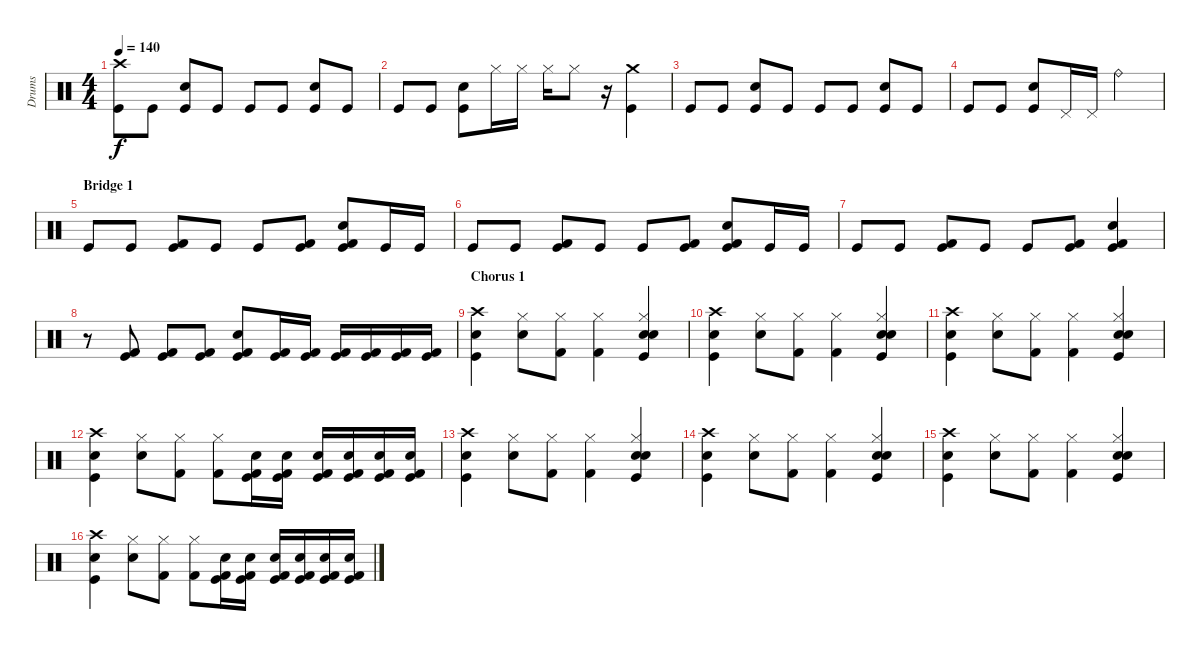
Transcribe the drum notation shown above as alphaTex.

\track ("Drums" "Drums") {instrument percussion}
\staff {score}
\articulation defaults
\ts (4 4)
\tempo 140
\clef neutral
\ks c
("Crash high (hit)" "Kick (hit)").8{dy f} "Kick (hit)".8 ("Snare (hit) 2" "Kick (hit)").8 "Kick (hit)".8 "Kick (hit)".8 "Kick (hit)".8 ("Snare (hit) 2" "Kick (hit)").8 "Kick (hit)".8 |
"Kick (hit)".8 "Kick (hit)".8 ("Snare (hit) 2" "Kick (hit)").8 "Hi-Hat (closed)".16 "Hi-Hat (closed)".16 "Hi-Hat (closed)".16 "Hi-Hat (closed)".8 r.16 ("Crash medium (hit)" "Kick (hit)").4 |
"Kick (hit)".8 "Kick (hit)".8 ("Snare (hit) 2" "Kick (hit)").8 "Kick (hit)".8 "Kick (hit)".8 "Kick (hit)".8 ("Snare (hit) 2" "Kick (hit)").8 "Kick (hit)".8 |
"Kick (hit)".8 "Kick (hit)".8 ("Snare (hit) 2" "Kick (hit)").8 "Pedal Hi-Hat (hit)".16 "Pedal Hi-Hat (hit)".16 "Ride (bell)".2 |
\section ("" "Bridge 1")
"Kick (hit)".8 "Kick (hit)".8 ("Kick (hit) 2" "Kick (hit)").8 "Kick (hit)".8 "Kick (hit)".8 ("Kick (hit) 2" "Kick (hit)").8 ("Snare (hit) 2" "Kick (hit) 2" "Kick (hit)").8 "Kick (hit)".16 "Kick (hit)".16 |
"Kick (hit)".8 "Kick (hit)".8 ("Kick (hit) 2" "Kick (hit)").8 "Kick (hit)".8 "Kick (hit)".8 ("Kick (hit) 2" "Kick (hit)").8 ("Snare (hit) 2" "Kick (hit) 2" "Kick (hit)").8 "Kick (hit)".16 "Kick (hit)".16 |
"Kick (hit)".8 "Kick (hit)".8 ("Kick (hit) 2" "Kick (hit)").8 "Kick (hit)".8 "Kick (hit)".8 ("Kick (hit) 2" "Kick (hit)").8 ("Snare (hit) 2" "Kick (hit) 2" "Kick (hit)").4 |
r.8 ("Kick (hit) 2" "Kick (hit)").8 ("Kick (hit) 2" "Kick (hit)").8 ("Kick (hit) 2" "Kick (hit)").8 ("Snare (hit) 2" "Kick (hit) 2" "Kick (hit)").8 ("Kick (hit) 2" "Kick (hit)").16 ("Kick (hit) 2" "Kick (hit)").16 ("Kick (hit) 2" "Kick (hit)").16 ("Kick (hit) 2" "Kick (hit)").16 ("Kick (hit) 2" "Kick (hit)").16 ("Kick (hit) 2" "Kick (hit)").16 |
\section ("" "Chorus 1")
("Crash high (hit)" "Snare (hit) 2" "Kick (hit)").4 ("Hi-Hat (closed)" "Snare (hit) 2").8 ("Hi-Hat (closed)" "Kick (hit) 2").8 ("Hi-Hat (closed)" "Kick (hit) 2").4 ("Electric Snare (hit)" "Hi-Hat (closed)" "Snare (hit) 2" "Kick (hit)").4 |
("Crash high (hit)" "Snare (hit) 2" "Kick (hit)").4 ("Hi-Hat (closed)" "Snare (hit) 2").8 ("Hi-Hat (closed)" "Kick (hit) 2").8 ("Hi-Hat (closed)" "Kick (hit) 2").4 ("Electric Snare (hit)" "Hi-Hat (closed)" "Snare (hit) 2" "Kick (hit)").4 |
("Crash high (hit)" "Snare (hit) 2" "Kick (hit)").4 ("Hi-Hat (closed)" "Snare (hit) 2").8 ("Hi-Hat (closed)" "Kick (hit) 2").8 ("Hi-Hat (closed)" "Kick (hit) 2").4 ("Electric Snare (hit)" "Hi-Hat (closed)" "Snare (hit) 2" "Kick (hit)").4 |
("Crash high (hit)" "Snare (hit) 2" "Kick (hit)").4 ("Hi-Hat (closed)" "Snare (hit) 2").8 ("Hi-Hat (closed)" "Kick (hit) 2").8 ("Hi-Hat (closed)" "Kick (hit) 2").8 ("Electric Snare (hit)" "Kick (hit) 2" "Kick (hit)").16 ("Electric Snare (hit)" "Kick (hit) 2" "Kick (hit)").16 ("Electric Snare (hit)" "Kick (hit) 2" "Kick (hit)").16 ("Electric Snare (hit)" "Kick (hit) 2" "Kick (hit)").16 ("Electric Snare (hit)" "Kick (hit) 2" "Kick (hit)").16 ("Electric Snare (hit)" "Kick (hit) 2" "Kick (hit)").16 |
("Crash high (hit)" "Snare (hit) 2" "Kick (hit)").4 ("Hi-Hat (closed)" "Snare (hit) 2").8 ("Hi-Hat (closed)" "Kick (hit) 2").8 ("Hi-Hat (closed)" "Kick (hit) 2").4 ("Electric Snare (hit)" "Hi-Hat (closed)" "Snare (hit) 2" "Kick (hit)").4 |
("Crash high (hit)" "Snare (hit) 2" "Kick (hit)").4 ("Hi-Hat (closed)" "Snare (hit) 2").8 ("Hi-Hat (closed)" "Kick (hit) 2").8 ("Hi-Hat (closed)" "Kick (hit) 2").4 ("Electric Snare (hit)" "Hi-Hat (closed)" "Snare (hit) 2" "Kick (hit)").4 |
("Crash high (hit)" "Snare (hit) 2" "Kick (hit)").4 ("Hi-Hat (closed)" "Snare (hit) 2").8 ("Hi-Hat (closed)" "Kick (hit) 2").8 ("Hi-Hat (closed)" "Kick (hit) 2").4 ("Electric Snare (hit)" "Hi-Hat (closed)" "Snare (hit) 2" "Kick (hit)").4 |
("Crash high (hit)" "Snare (hit) 2" "Kick (hit)").4 ("Hi-Hat (closed)" "Snare (hit) 2").8 ("Hi-Hat (closed)" "Kick (hit) 2").8 ("Hi-Hat (closed)" "Kick (hit) 2").8 ("Electric Snare (hit)" "Kick (hit) 2" "Kick (hit)").16 ("Electric Snare (hit)" "Kick (hit) 2" "Kick (hit)").16 ("Electric Snare (hit)" "Kick (hit) 2" "Kick (hit)").16 ("Electric Snare (hit)" "Kick (hit) 2" "Kick (hit)").16 ("Electric Snare (hit)" "Kick (hit) 2" "Kick (hit)").16 ("Electric Snare (hit)" "Kick (hit) 2" "Kick (hit)").16
